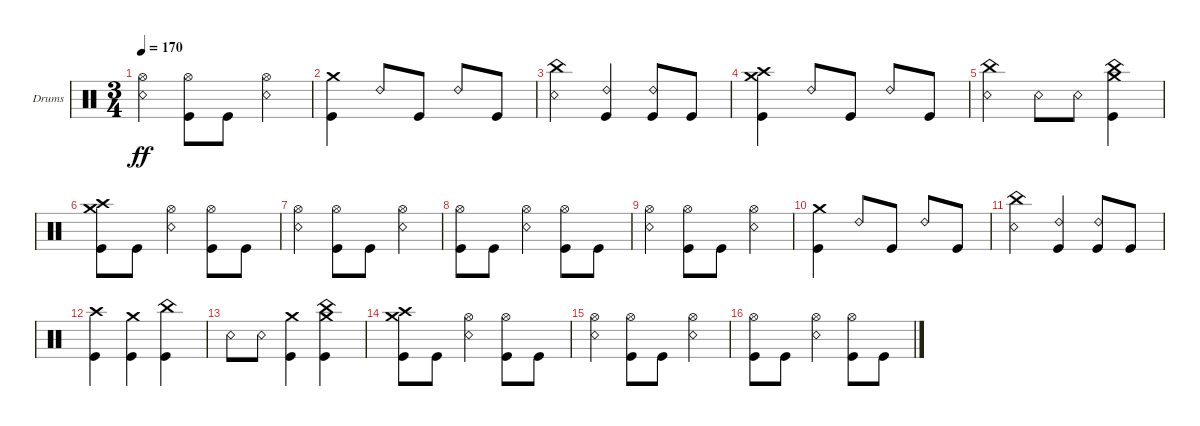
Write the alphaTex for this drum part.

\bracketExtendMode groupsimilarinstruments
\firstSystemTrackNameOrientation horizontal
\otherSystemsTrackNameOrientation horizontal
\track ("Kaleb - Drums" "Drums") {instrument percussion}
\staff {score}
\articulation defaults
\ts (3 4)
\tempo 170
\clef neutral
\ks c
("Hi-Hat (open)" "Snare (rim shot)").4{dy ff} ("Kick (hit)" "Hi-Hat (open)").8 "Kick (hit)".8 ("Hi-Hat (open)" "Snare (rim shot)").4 |
("Kick (hit)" "Crash medium (hit)").4 "Ride (bell) 2".8 "Kick (hit)".8 "Ride (bell) 2".8 "Kick (hit)".8 |
("Snare (rim shot)" "China (hit)").4 ("Ride (bell) 2" "Kick (hit)").4 ("Ride (bell) 2" "Kick (hit)").8 "Kick (hit)".8 |
("Kick (hit)" "Crash medium (hit)" "Crash high (hit)").4 "Ride (bell) 2".8 "Kick (hit)".8 "Ride (bell) 2".8 "Kick (hit)".8 |
("Snare (rim shot)" "China (hit)").4 "Snare (rim shot)".8 "Snare (rim shot)".8 ("Kick (hit)" "Crash medium (hit)" "China (hit)").4 |
("Kick (hit)" "Crash medium (hit)" "Crash high (hit)").8 "Kick (hit)".8 ("Hi-Hat (open)" "Snare (rim shot)").4 ("Kick (hit)" "Hi-Hat (open)").8 "Kick (hit)".8 |
("Hi-Hat (open)" "Snare (rim shot)").4 ("Kick (hit)" "Hi-Hat (open)").8 "Kick (hit)".8 ("Hi-Hat (open)" "Snare (rim shot)").4 |
("Kick (hit)" "Hi-Hat (open)").8 "Kick (hit)".8 ("Hi-Hat (open)" "Snare (rim shot)").4 ("Kick (hit)" "Hi-Hat (open)").8 "Kick (hit)".8 |
("Hi-Hat (open)" "Snare (rim shot)").4 ("Kick (hit)" "Hi-Hat (open)").8 "Kick (hit)".8 ("Hi-Hat (open)" "Snare (rim shot)").4 |
("Kick (hit)" "Crash medium (hit)").4 "Ride (bell) 2".8 "Kick (hit)".8 "Ride (bell) 2".8 "Kick (hit)".8 |
("Snare (rim shot)" "China (hit)").4 ("Ride (bell) 2" "Kick (hit)").4 ("Ride (bell) 2" "Kick (hit)").8 "Kick (hit)".8 |
("Kick (hit)" "Crash high (hit)").4 ("Kick (hit)" "Crash medium (hit)").4 ("Kick (hit)" "China (hit)").4 |
"Snare (rim shot)".8 "Snare (rim shot)".8 ("Kick (hit)" "Crash medium (hit)").4 ("Kick (hit)" "Crash medium (hit)" "China (hit)").4 |
("Kick (hit)" "Crash medium (hit)" "Crash high (hit)").8 "Kick (hit)".8 ("Hi-Hat (open)" "Snare (rim shot)").4 ("Kick (hit)" "Hi-Hat (open)").8 "Kick (hit)".8 |
("Hi-Hat (open)" "Snare (rim shot)").4 ("Kick (hit)" "Hi-Hat (open)").8 "Kick (hit)".8 ("Hi-Hat (open)" "Snare (rim shot)").4 |
("Kick (hit)" "Hi-Hat (open)").8 "Kick (hit)".8 ("Hi-Hat (open)" "Snare (rim shot)").4 ("Kick (hit)" "Hi-Hat (open)").8 "Kick (hit)".8
